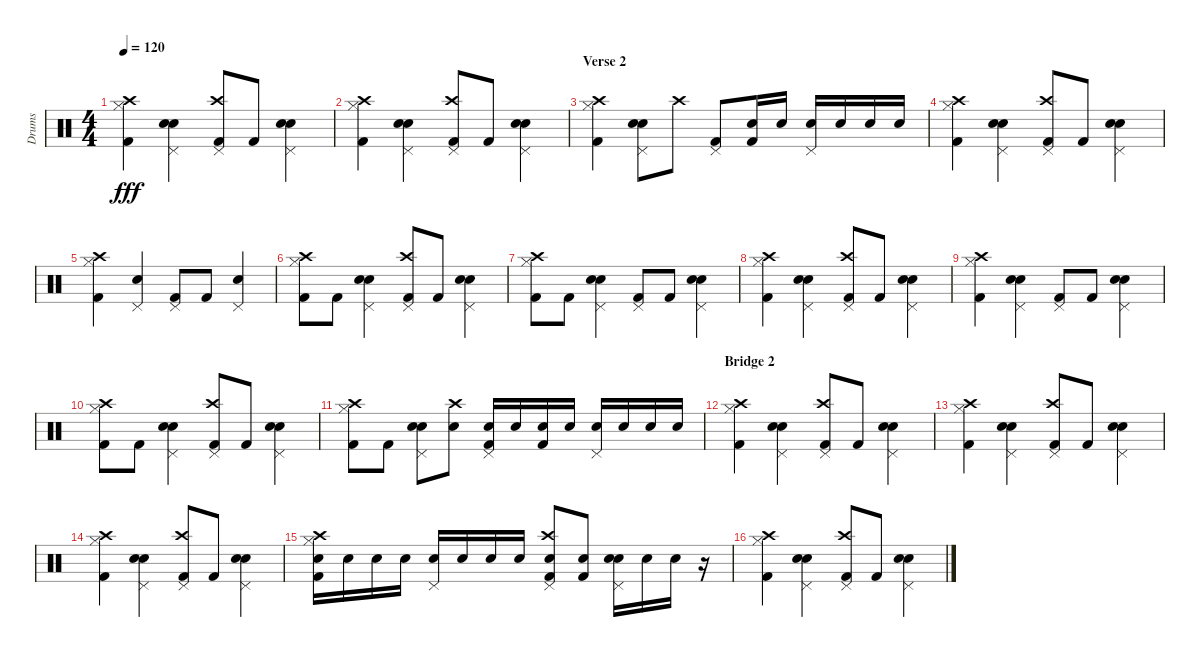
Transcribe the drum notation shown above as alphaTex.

\track ("Drums" "Drums") {instrument percussion}
\staff {score}
\articulation defaults
\ts (4 4)
\tempo 120
\clef neutral
\ks c
("Hi-Hat (closed)" "Kick (hit) 2" "Crash high (hit)").4{dy fff} ("Electric Snare (hit)" "Pedal Hi-Hat (hit)" "Snare (hit) 2").4 ("Pedal Hi-Hat (hit)" "Kick (hit) 2" "Crash high (hit)").8 "Kick (hit) 2".8 ("Electric Snare (hit)" "Pedal Hi-Hat (hit)" "Snare (hit) 2").4 |
("Hi-Hat (closed)" "Kick (hit) 2" "Crash high (hit)").4 ("Electric Snare (hit)" "Pedal Hi-Hat (hit)" "Snare (hit) 2").4 ("Pedal Hi-Hat (hit)" "Kick (hit) 2" "Crash high (hit)").8 "Kick (hit) 2".8 ("Electric Snare (hit)" "Pedal Hi-Hat (hit)" "Snare (hit) 2").4 |
\section ("" "Verse 2")
("Hi-Hat (closed)" "Kick (hit) 2" "Crash high (hit)").4 ("Electric Snare (hit)" "Pedal Hi-Hat (hit)" "Snare (hit) 2").8 "Crash high (hit)".8 ("Pedal Hi-Hat (hit)" "Kick (hit) 2").8 ("Kick (hit) 2" "Snare (hit) 2").16 "Snare (hit) 2".16 ("Pedal Hi-Hat (hit)" "Electric Snare (hit)").16 "Electric Snare (hit)".16 "Electric Snare (hit)".16 "Electric Snare (hit)".16 |
("Hi-Hat (closed)" "Kick (hit) 2" "Crash high (hit)").4 ("Electric Snare (hit)" "Pedal Hi-Hat (hit)" "Snare (hit) 2").4 ("Pedal Hi-Hat (hit)" "Kick (hit) 2" "Crash high (hit)").8 "Kick (hit) 2".8 ("Electric Snare (hit)" "Pedal Hi-Hat (hit)" "Snare (hit) 2").4 |
("Hi-Hat (closed)" "Kick (hit) 2" "Crash high (hit)").4 ("Electric Snare (hit)" "Pedal Hi-Hat (hit)").4 ("Pedal Hi-Hat (hit)" "Kick (hit) 2").8 "Kick (hit) 2".8 ("Electric Snare (hit)" "Pedal Hi-Hat (hit)").4 |
("Hi-Hat (closed)" "Kick (hit) 2" "Crash high (hit)").8 "Kick (hit) 2".8 ("Electric Snare (hit)" "Pedal Hi-Hat (hit)" "Snare (hit) 2").4 ("Pedal Hi-Hat (hit)" "Kick (hit) 2" "Crash high (hit)").8 "Kick (hit) 2".8 ("Electric Snare (hit)" "Pedal Hi-Hat (hit)" "Snare (hit) 2").4 |
("Hi-Hat (closed)" "Kick (hit) 2" "Crash high (hit)").8 "Kick (hit) 2".8 ("Electric Snare (hit)" "Pedal Hi-Hat (hit)" "Snare (hit) 2").4 ("Pedal Hi-Hat (hit)" "Kick (hit) 2").8 "Kick (hit) 2".8 ("Electric Snare (hit)" "Pedal Hi-Hat (hit)" "Snare (hit) 2").4 |
("Hi-Hat (closed)" "Kick (hit) 2" "Crash high (hit)").4 ("Electric Snare (hit)" "Pedal Hi-Hat (hit)" "Snare (hit) 2").4 ("Pedal Hi-Hat (hit)" "Kick (hit) 2" "Crash high (hit)").8 "Kick (hit) 2".8 ("Electric Snare (hit)" "Pedal Hi-Hat (hit)" "Snare (hit) 2").4 |
("Hi-Hat (closed)" "Kick (hit) 2" "Crash high (hit)").4 ("Electric Snare (hit)" "Pedal Hi-Hat (hit)" "Snare (hit) 2").4 ("Pedal Hi-Hat (hit)" "Kick (hit) 2").8 "Kick (hit) 2".8 ("Electric Snare (hit)" "Pedal Hi-Hat (hit)" "Snare (hit) 2").4 |
("Hi-Hat (closed)" "Kick (hit) 2" "Crash high (hit)").8 "Kick (hit) 2".8 ("Electric Snare (hit)" "Pedal Hi-Hat (hit)" "Snare (hit) 2").4 ("Pedal Hi-Hat (hit)" "Kick (hit) 2" "Crash high (hit)").8 "Kick (hit) 2".8 ("Electric Snare (hit)" "Pedal Hi-Hat (hit)" "Snare (hit) 2").4 |
("Hi-Hat (closed)" "Kick (hit) 2" "Crash high (hit)").8 "Kick (hit) 2".8 ("Electric Snare (hit)" "Pedal Hi-Hat (hit)" "Snare (hit) 2").8 ("Crash high (hit)" "Snare (hit) 2").8 ("Pedal Hi-Hat (hit)" "Kick (hit) 2" "Snare (hit) 2").16 "Snare (hit) 2".16 ("Kick (hit) 2" "Snare (hit) 2").16 "Snare (hit) 2".16 ("Pedal Hi-Hat (hit)" "Electric Snare (hit)").16 "Electric Snare (hit)".16 "Snare (hit) 2".16 "Snare (hit) 2".16 |
\section ("" "Bridge 2")
("Hi-Hat (closed)" "Kick (hit) 2" "Crash high (hit)").4 ("Electric Snare (hit)" "Pedal Hi-Hat (hit)" "Snare (hit) 2").4 ("Pedal Hi-Hat (hit)" "Kick (hit) 2" "Crash high (hit)").8 "Kick (hit) 2".8 ("Electric Snare (hit)" "Pedal Hi-Hat (hit)" "Snare (hit) 2").4 |
("Hi-Hat (closed)" "Kick (hit) 2" "Crash high (hit)").4 ("Electric Snare (hit)" "Pedal Hi-Hat (hit)" "Snare (hit) 2").4 ("Pedal Hi-Hat (hit)" "Kick (hit) 2" "Crash high (hit)").8 "Kick (hit) 2".8 ("Electric Snare (hit)" "Pedal Hi-Hat (hit)" "Snare (hit) 2").4 |
("Hi-Hat (closed)" "Kick (hit) 2" "Crash high (hit)").4 ("Electric Snare (hit)" "Pedal Hi-Hat (hit)" "Snare (hit) 2").4 ("Pedal Hi-Hat (hit)" "Kick (hit) 2" "Crash high (hit)").8 "Kick (hit) 2".8 ("Electric Snare (hit)" "Pedal Hi-Hat (hit)" "Snare (hit) 2").4 |
("Hi-Hat (closed)" "Kick (hit) 2" "Crash high (hit)" "Electric Snare (hit)").16 "Electric Snare (hit)".16 "Electric Snare (hit)".16 "Electric Snare (hit)".16 ("Pedal Hi-Hat (hit)" "Snare (hit) 2").16 "Snare (hit) 2".16 "Snare (hit) 2".16 "Snare (hit) 2".16 ("Pedal Hi-Hat (hit)" "Kick (hit) 2" "Crash high (hit)" "Snare (hit) 2").8 ("Kick (hit) 2" "Snare (hit) 2").8 ("Electric Snare (hit)" "Pedal Hi-Hat (hit)" "Snare (hit) 2").16 "Snare (hit) 2".16 "Snare (hit) 2".16 r.16 |
("Hi-Hat (closed)" "Kick (hit) 2" "Crash high (hit)").4 ("Electric Snare (hit)" "Pedal Hi-Hat (hit)" "Snare (hit) 2").4 ("Pedal Hi-Hat (hit)" "Kick (hit) 2" "Crash high (hit)").8 "Kick (hit) 2".8 ("Electric Snare (hit)" "Pedal Hi-Hat (hit)" "Snare (hit) 2").4
